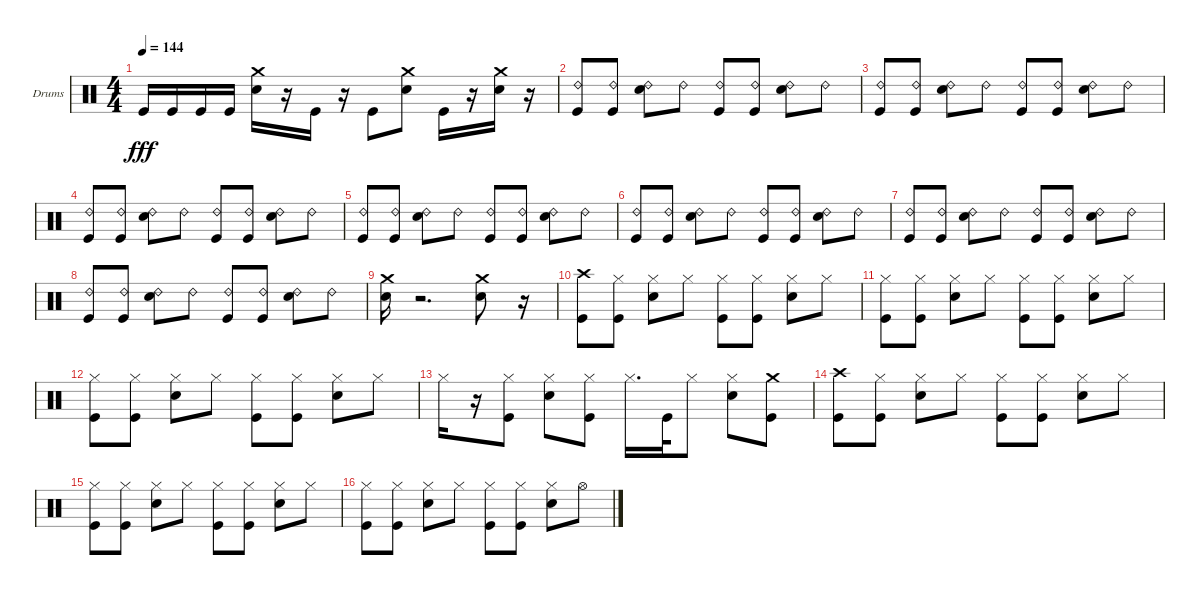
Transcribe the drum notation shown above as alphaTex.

\bracketExtendMode groupsimilarinstruments
\firstSystemTrackNameOrientation horizontal
\otherSystemsTrackNameOrientation horizontal
\track ("Drumkit" "Drums") {instrument percussion}
\staff {score}
\articulation defaults
\ts (4 4)
\tempo 144
\clef neutral
\ks c "Kick (hit)".16{dy fff} "Kick (hit)".16 "Kick (hit)".16 "Kick (hit)".16
("Snare (hit) 2" "Crash medium (hit)").16 r.16 "Kick (hit)".16 r.16 "Kick (hit)".8 ("Snare (hit) 2" "Crash medium (hit)").8 "Kick (hit)".16 r.16 ("Snare (hit) 2" "Crash medium (hit)").16 r.16 |
("Kick (hit)" "Ride (bell) 2").8 ("Kick (hit)" "Ride (bell) 2").8 ("Snare (hit) 2" "Ride (bell) 2").8 "Ride (bell) 2".8 ("Kick (hit)" "Ride (bell) 2").8 ("Kick (hit)" "Ride (bell) 2").8 ("Snare (hit) 2" "Ride (bell) 2").8 "Ride (bell) 2".8 |
("Ride (bell) 2" "Kick (hit)").8 ("Kick (hit)" "Ride (bell) 2").8 ("Snare (hit) 2" "Ride (bell) 2").8 "Ride (bell) 2".8 ("Kick (hit)" "Ride (bell) 2").8 ("Kick (hit)" "Ride (bell) 2").8 ("Snare (hit) 2" "Ride (bell) 2").8 "Ride (bell) 2".8 |
("Ride (bell) 2" "Kick (hit)").8 ("Kick (hit)" "Ride (bell) 2").8 ("Snare (hit) 2" "Ride (bell) 2").8 "Ride (bell) 2".8 ("Kick (hit)" "Ride (bell) 2").8 ("Kick (hit)" "Ride (bell) 2").8 ("Snare (hit) 2" "Ride (bell) 2").8 "Ride (bell) 2".8 |
("Ride (bell) 2" "Kick (hit)").8 ("Kick (hit)" "Ride (bell) 2").8 ("Snare (hit) 2" "Ride (bell) 2").8 "Ride (bell) 2".8 ("Kick (hit)" "Ride (bell) 2").8 ("Kick (hit)" "Ride (bell) 2").8 ("Snare (hit) 2" "Ride (bell) 2").8 "Ride (bell) 2".8 |
("Ride (bell) 2" "Kick (hit)").8 ("Kick (hit)" "Ride (bell) 2").8 ("Snare (hit) 2" "Ride (bell) 2").8 "Ride (bell) 2".8 ("Kick (hit)" "Ride (bell) 2").8 ("Kick (hit)" "Ride (bell) 2").8 ("Snare (hit) 2" "Ride (bell) 2").8 "Ride (bell) 2".8 |
("Kick (hit)" "Ride (bell) 2").8 ("Kick (hit)" "Ride (bell) 2").8 ("Snare (hit) 2" "Ride (bell) 2").8 "Ride (bell) 2".8 ("Kick (hit)" "Ride (bell) 2").8 ("Kick (hit)" "Ride (bell) 2").8 ("Snare (hit) 2" "Ride (bell) 2").8 "Ride (bell) 2".8 |
("Kick (hit)" "Ride (bell) 2").8 ("Kick (hit)" "Ride (bell) 2").8 ("Snare (hit) 2" "Ride (bell) 2").8 "Ride (bell) 2".8 ("Kick (hit)" "Ride (bell) 2").8 ("Kick (hit)" "Ride (bell) 2").8 ("Snare (hit) 2" "Ride (bell) 2").8 "Ride (bell) 2".8 |
("Snare (hit) 2" "Crash medium (hit)").16 r.2{d} ("Crash medium (hit)" "Snare (hit) 2").8 r.16 |
("Kick (hit)" "Crash high (hit)").8 ("Hi-Hat (closed)" "Kick (hit)").8 ("Snare (hit) 2" "Hi-Hat (closed)").8 "Hi-Hat (closed)".8 ("Kick (hit)" "Hi-Hat (closed)").8 ("Hi-Hat (closed)" "Kick (hit)").8 ("Snare (hit) 2" "Hi-Hat (closed)").8 "Hi-Hat (closed)".8 |
("Kick (hit)" "Hi-Hat (closed)").8 ("Hi-Hat (closed)" "Kick (hit)").8 ("Snare (hit) 2" "Hi-Hat (closed)").8 "Hi-Hat (closed)".8 ("Kick (hit)" "Hi-Hat (closed)").8 ("Hi-Hat (closed)" "Kick (hit)").8 ("Snare (hit) 2" "Hi-Hat (closed)").8 "Hi-Hat (closed)".8 |
("Kick (hit)" "Hi-Hat (closed)").8 ("Kick (hit)" "Hi-Hat (closed)").8 ("Snare (hit) 2" "Hi-Hat (closed)").8 "Hi-Hat (closed)".8 ("Kick (hit)" "Hi-Hat (closed)").8 ("Kick (hit)" "Hi-Hat (closed)").8 ("Snare (hit) 2" "Hi-Hat (closed)").8 "Hi-Hat (closed)".8 |
"Hi-Hat (closed)".16 r.16 ("Kick (hit)" "Hi-Hat (closed)").8 ("Snare (hit) 2" "Hi-Hat (closed)").8 ("Hi-Hat (closed)" "Kick (hit)").8 "Hi-Hat (closed)".16{d} "Kick (hit)".32 "Hi-Hat (closed)".8 ("Snare (hit) 2" "Hi-Hat (closed)").8 ("Kick (hit)" "Crash medium (hit)").8 |
("Kick (hit)" "Crash high (hit)").8 ("Kick (hit)" "Hi-Hat (closed)").8 ("Snare (hit) 2" "Hi-Hat (closed)").8 "Hi-Hat (closed)".8 ("Kick (hit)" "Hi-Hat (closed)").8 ("Kick (hit)" "Hi-Hat (closed)").8 ("Snare (hit) 2" "Hi-Hat (closed)").8 "Hi-Hat (closed)".8 |
("Kick (hit)" "Hi-Hat (closed)").8 ("Kick (hit)" "Hi-Hat (closed)").8 ("Snare (hit) 2" "Hi-Hat (closed)").8 "Hi-Hat (closed)".8 ("Kick (hit)" "Hi-Hat (closed)").8 ("Kick (hit)" "Hi-Hat (closed)").8 ("Snare (hit) 2" "Hi-Hat (closed)").8 "Hi-Hat (closed)".8 |
("Hi-Hat (closed)" "Kick (hit)").8 ("Kick (hit)" "Hi-Hat (closed)").8 ("Snare (hit) 2" "Hi-Hat (closed)").8 "Hi-Hat (closed)".8 ("Kick (hit)" "Hi-Hat (closed)").8 ("Kick (hit)" "Hi-Hat (closed)").8 ("Snare (hit) 2" "Hi-Hat (closed)").8 "Hi-Hat (open)".8
